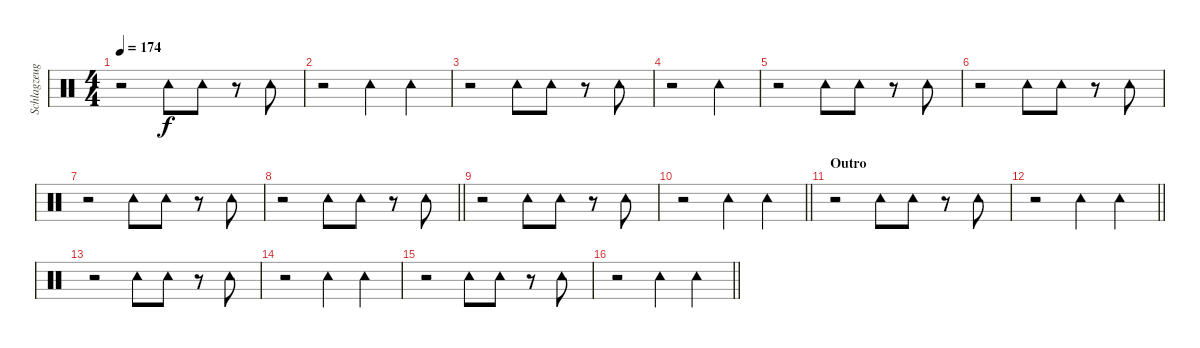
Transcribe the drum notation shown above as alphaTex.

\track ("Schlagzeug" "Schlagzeug") {instrument percussion}
\staff {score}
\articulation defaults
\ts (4 4)
\tempo 174
\clef neutral
\ks c
r.2{dy f} "Tambourine (hit)".8 "Tambourine (hit)".8 r.8 "Tambourine (hit)".8 |
r.2 "Tambourine (hit)".4 "Tambourine (hit)".4 |
r.2 "Tambourine (hit)".8 "Tambourine (hit)".8 r.8 "Tambourine (hit)".8 |
r.2 "Tambourine (hit)".4 |
r.2 "Tambourine (hit)".8 "Tambourine (hit)".8 r.8 "Tambourine (hit)".8 |
r.2 "Tambourine (hit)".8 "Tambourine (hit)".8 r.8 "Tambourine (hit)".8 |
r.2 "Tambourine (hit)".8 "Tambourine (hit)".8 r.8 "Tambourine (hit)".8 |
\barLineRight lightlight
r.2 "Tambourine (hit)".8 "Tambourine (hit)".8 r.8 "Tambourine (hit)".8 |
r.2 "Tambourine (hit)".8 "Tambourine (hit)".8 r.8 "Tambourine (hit)".8 |
\barLineRight lightlight
r.2 "Tambourine (hit)".4 "Tambourine (hit)".4 |
\section ("" "Outro")
r.2 "Tambourine (hit)".8 "Tambourine (hit)".8 r.8 "Tambourine (hit)".8 |
\barLineRight lightlight
r.2 "Tambourine (hit)".4 "Tambourine (hit)".4 |
r.2 "Tambourine (hit)".8 "Tambourine (hit)".8 r.8 "Tambourine (hit)".8 |
r.2 "Tambourine (hit)".4 "Tambourine (hit)".4 |
r.2 "Tambourine (hit)".8 "Tambourine (hit)".8 r.8 "Tambourine (hit)".8 |
\barLineRight lightlight
r.2 "Tambourine (hit)".4 "Tambourine (hit)".4
